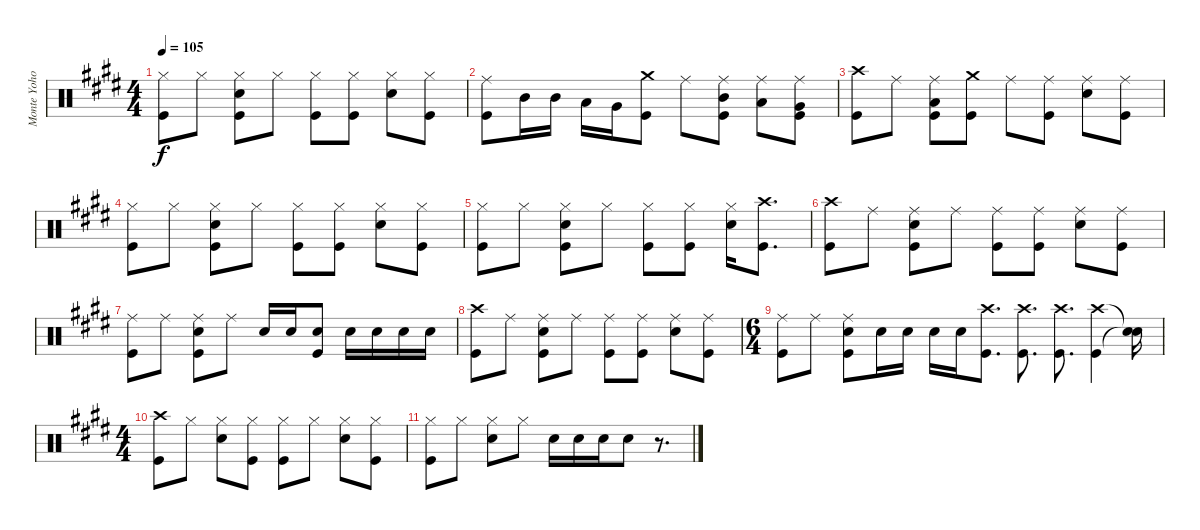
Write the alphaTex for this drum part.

\track ("Monte Yoho" "Monte Yoho") {instrument percussion}
\staff {score}
\articulation defaults
\ts (4 4)
\tempo 105
\clef neutral
\ks e
("Hi-Hat (closed)" "Kick (hit)").8{dy f} "Hi-Hat (closed)".8 ("Hi-Hat (closed)" "Snare (hit) 2" "Kick (hit)").8 "Hi-Hat (closed)".8 ("Hi-Hat (closed)" "Kick (hit)").8 ("Hi-Hat (closed)" "Kick (hit)").8 ("Hi-Hat (closed)" "Snare (hit) 2").8 ("Hi-Hat (closed)" "Kick (hit)").8 |
("Ride (middle)" "Kick (hit)").8 "Mid Tom (hit)".16 "Mid Tom (hit)".16 "Low Tom (hit)".16 "Very Low Tom (hit)".16 ("Crash medium (hit)" "Kick (hit)").8 "Ride (middle)".8 ("Ride (middle)" "Mid Tom (hit)" "Kick (hit)").8 ("Ride (middle)" "Low Tom (hit)").8 ("Ride (middle)" "Very Low Tom (hit)" "Kick (hit)").8 |
("Crash high (hit)" "Kick (hit)").8 "Ride (middle)".8 ("Ride (middle)" "Low Tom (hit)" "Kick (hit)").8 ("Crash medium (hit)" "Kick (hit)").8 "Ride (middle)".8 ("Ride (middle)" "Kick (hit)").8 ("Ride (middle)" "Snare (hit) 2").8 ("Ride (middle)" "Kick (hit)").8 |
("Hi-Hat (closed)" "Kick (hit)").8 "Hi-Hat (closed)".8 ("Hi-Hat (closed)" "Snare (hit) 2" "Kick (hit)").8 "Hi-Hat (closed)".8 ("Hi-Hat (closed)" "Kick (hit)").8 ("Hi-Hat (closed)" "Kick (hit)").8 ("Hi-Hat (closed)" "Snare (hit) 2").8 ("Hi-Hat (closed)" "Kick (hit)").8 |
("Hi-Hat (closed)" "Kick (hit)").8 "Hi-Hat (closed)".8 ("Hi-Hat (closed)" "Snare (hit) 2" "Kick (hit)").8 "Hi-Hat (closed)".8 ("Hi-Hat (closed)" "Kick (hit)").8 ("Hi-Hat (closed)" "Kick (hit)").8 ("Hi-Hat (closed)" "Snare (hit) 2").16 ("Crash high (hit)" "Kick (hit)").8{d} |
("Crash high (hit)" "Kick (hit)").8 "Ride (middle)".8 ("Ride (middle)" "Snare (hit) 2" "Kick (hit)").8 "Ride (middle)".8 ("Ride (middle)" "Kick (hit)").8 ("Ride (middle)" "Kick (hit)").8 ("Ride (middle)" "Snare (hit) 2").8 ("Ride (middle)" "Kick (hit)").8 |
("Ride (middle)" "Kick (hit)").8 "Ride (middle)".8 ("Ride (middle)" "Snare (hit) 2" "Kick (hit)").8 "Ride (middle)".8 "Snare (hit) 2".16 "Snare (hit) 2".16 ("Snare (hit) 2" "Kick (hit)").8 "Snare (hit) 2".16 "Snare (hit) 2".16 "Snare (hit) 2".16 "Snare (hit) 2".16 |
("Crash high (hit)" "Kick (hit)").8 "Ride (middle)".8 ("Ride (middle)" "Snare (hit) 2" "Kick (hit)").8 "Ride (middle)".8 ("Ride (middle)" "Kick (hit)").8 ("Ride (middle)" "Kick (hit)").8 ("Ride (middle)" "Snare (hit) 2").8 ("Ride (middle)" "Kick (hit)").8 |
\ts (6 4)
("Ride (middle)" "Kick (hit)").8 "Ride (middle)".8 ("Ride (middle)" "Snare (hit) 2" "Kick (hit)").8 "Snare (hit) 2".16 "Snare (hit) 2".16 "Snare (hit) 2".16 "Snare (hit) 2".16 ("Crash high (hit)" "Kick (hit)").8{d} ("Crash high (hit)" "Kick (hit)").8{d} ("Crash high (hit)" "Kick (hit)").8{d} ("Crash high (hit)" "Kick (hit)").4 ("Snare (hit)"{t} "Snare (hit)"{t}).16 |
\ts (4 4)
("Crash high (hit)" "Kick (hit)").8 "Hi-Hat (closed)".8 ("Hi-Hat (closed)" "Snare (hit) 2").8 ("Hi-Hat (closed)" "Kick (hit)").8 ("Hi-Hat (closed)" "Kick (hit)").8 "Hi-Hat (closed)".8 ("Hi-Hat (closed)" "Snare (hit) 2").8 ("Hi-Hat (closed)" "Kick (hit)").8 |
("Hi-Hat (closed)" "Kick (hit)").8 "Hi-Hat (closed)".8 ("Hi-Hat (closed)" "Snare (hit) 2").8 "Hi-Hat (closed)".8 "Snare (hit) 2".16 "Snare (hit) 2".16 "Snare (hit) 2".16 "Snare (hit) 2".8 r.8{d}
